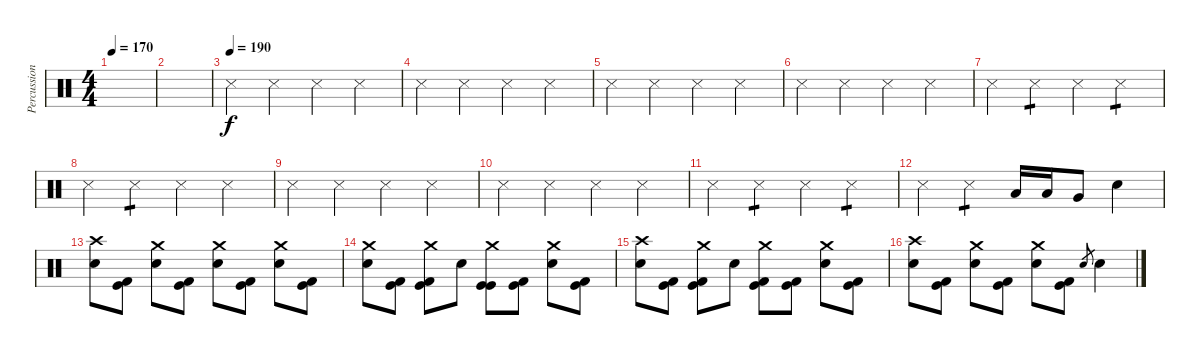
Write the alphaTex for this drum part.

\track ("Percussions" "Percussion") {instrument percussion}
\staff {score}
\articulation defaults
\ts (4 4)
\tempo 170
\clef neutral
\ks c
|
|
\tempo (190)
"Metronome (hit)".4 "Metronome (hit)".4 "Metronome (hit)".4 "Metronome (hit)".4 |
"Metronome (hit)".4 "Metronome (hit)".4 "Metronome (hit)".4 "Metronome (hit)".4 |
"Metronome (hit)".4 "Metronome (hit)".4 "Metronome (hit)".4 "Metronome (hit)".4 |
"Metronome (hit)".4 "Metronome (hit)".4 "Metronome (hit)".4 "Metronome (hit)".4 |
"Metronome (hit)".4 "Metronome (hit)".4{tp 1} "Metronome (hit)".4 "Metronome (hit)".4{tp 1} |
"Metronome (hit)".4 "Metronome (hit)".4{tp 1} "Metronome (hit)".4 "Metronome (hit)".4 |
"Metronome (hit)".4 "Metronome (hit)".4 "Metronome (hit)".4 "Metronome (hit)".4 |
"Metronome (hit)".4 "Metronome (hit)".4 "Metronome (hit)".4 "Metronome (hit)".4 |
"Metronome (hit)".4 "Metronome (hit)".4{tp 1} "Metronome (hit)".4 "Metronome (hit)".4{tp 1} |
"Metronome (hit)".4 "Metronome (hit)".4{tp 1} "Low Floor Tom (hit)".16 "Low Floor Tom (hit)".16 "Very Low Tom (hit)".8 "Electric Snare (hit)".4 |
("Crash high (hit)" "Electric Snare (hit)").8 ("Kick (hit)" "Kick (hit) 2").8 ("Crash medium (hit)" "Electric Snare (hit)").8 ("Kick (hit)" "Kick (hit) 2").8 ("Crash medium (hit)" "Electric Snare (hit)").8 ("Kick (hit)" "Kick (hit) 2").8 ("Crash medium (hit)" "Electric Snare (hit)").8 ("Kick (hit)" "Kick (hit) 2").8 |
("Crash medium (hit)" "Electric Snare (hit)").8 ("Kick (hit)" "Kick (hit) 2").8 ("Crash medium (hit)" "Kick (hit)" "Kick (hit) 2").8 "Electric Snare (hit)".8 ("Crash medium (hit)" "Kick (hit)" "Kick (hit)").8 ("Kick (hit)" "Kick (hit) 2").8 ("Crash medium (hit)" "Electric Snare (hit)").8 ("Kick (hit)" "Kick (hit) 2").8 |
("Crash high (hit)" "Electric Snare (hit)").8 ("Kick (hit)" "Kick (hit) 2").8 ("Crash medium (hit)" "Kick (hit)" "Kick (hit) 2").8 "Electric Snare (hit)".8 ("Crash medium (hit)" "Kick (hit)" "Kick (hit) 2").8 ("Kick (hit)" "Kick (hit) 2").8 ("Crash medium (hit)" "Electric Snare (hit)").8 ("Kick (hit)" "Kick (hit) 2").8 |
("Crash high (hit)" "Electric Snare (hit)").8 ("Kick (hit)" "Kick (hit) 2").8 ("Crash medium (hit)" "Electric Snare (hit)").8 ("Kick (hit)" "Kick (hit) 2").8 ("Crash medium (hit)" "Electric Snare (hit)").8 ("Kick (hit)" "Kick (hit) 2").8 "Electric Snare (hit)".8{gr} "Electric Snare (hit)".4
